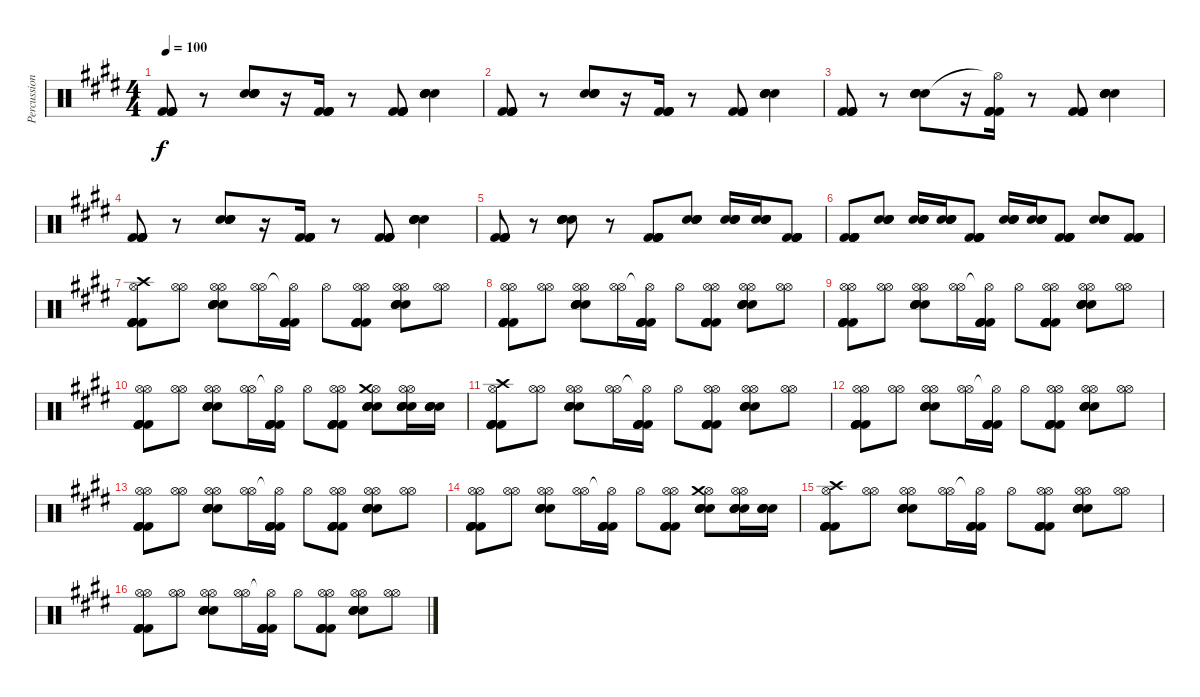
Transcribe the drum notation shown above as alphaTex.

\track ("Percussion" "Percussion") {instrument percussion}
\staff {score}
\articulation defaults
\ts (4 4)
\tempo 100
\clef neutral
\ks e
("Kick (hit) 2" "Kick (hit) 2" "Kick (hit) 2" "Kick (hit) 2").8{dy f} r.8 ("Electric Snare (hit)" "Electric Snare (hit)" "Electric Snare (hit)" "Electric Snare (hit)").8 r.16 ("Kick (hit) 2" "Kick (hit) 2" "Kick (hit) 2" "Kick (hit) 2").16 r.8 ("Kick (hit) 2" "Kick (hit) 2" "Kick (hit) 2" "Kick (hit) 2").8 ("Electric Snare (hit)" "Electric Snare (hit)" "Electric Snare (hit)" "Electric Snare (hit)").4 |
("Kick (hit) 2" "Kick (hit) 2" "Kick (hit) 2" "Kick (hit) 2").8 r.8 ("Electric Snare (hit)" "Electric Snare (hit)" "Electric Snare (hit)" "Electric Snare (hit)").8 r.16 ("Kick (hit) 2" "Kick (hit) 2" "Kick (hit) 2" "Kick (hit) 2").16 r.8 ("Kick (hit) 2" "Kick (hit) 2" "Kick (hit) 2" "Kick (hit) 2").8 ("Electric Snare (hit)" "Electric Snare (hit)" "Electric Snare (hit)" "Electric Snare (hit)").4 |
("Kick (hit) 2" "Kick (hit) 2" "Kick (hit) 2" "Kick (hit) 2").8 r.8 ("Electric Snare (hit)" "Electric Snare (hit)" "Electric Snare (hit)" "Electric Snare (hit)").8 r.16 ("Hi-Hat (open)"{t} "Kick (hit) 2" "Kick (hit) 2" "Kick (hit) 2" "Kick (hit) 2").16 r.8 ("Kick (hit) 2" "Kick (hit) 2" "Kick (hit) 2" "Kick (hit) 2").8 ("Electric Snare (hit)" "Electric Snare (hit)" "Electric Snare (hit)" "Electric Snare (hit)").4 |
("Kick (hit) 2" "Kick (hit) 2" "Kick (hit) 2" "Kick (hit) 2").8 r.8 ("Electric Snare (hit)" "Electric Snare (hit)" "Electric Snare (hit)" "Electric Snare (hit)").8 r.16 ("Kick (hit) 2" "Kick (hit) 2" "Kick (hit) 2" "Kick (hit) 2").16 r.8 ("Kick (hit) 2" "Kick (hit) 2" "Kick (hit) 2" "Kick (hit) 2").8 ("Electric Snare (hit)" "Electric Snare (hit)" "Electric Snare (hit)" "Electric Snare (hit)").4 |
("Kick (hit) 2" "Kick (hit) 2" "Kick (hit) 2" "Kick (hit) 2").8 r.8 ("Electric Snare (hit)" "Electric Snare (hit)" "Electric Snare (hit)" "Electric Snare (hit)").8 r.8 ("Kick (hit) 2" "Kick (hit) 2" "Kick (hit) 2" "Kick (hit) 2").8 ("Electric Snare (hit)" "Electric Snare (hit)" "Electric Snare (hit)" "Electric Snare (hit)").8 ("Electric Snare (hit)" "Electric Snare (hit)" "Electric Snare (hit)" "Electric Snare (hit)").16 ("Electric Snare (hit)" "Electric Snare (hit)" "Electric Snare (hit)" "Electric Snare (hit)").16 ("Kick (hit) 2" "Kick (hit) 2" "Kick (hit) 2" "Kick (hit) 2").8 |
("Kick (hit) 2" "Kick (hit) 2" "Kick (hit) 2" "Kick (hit) 2").8 ("Electric Snare (hit)" "Electric Snare (hit)" "Electric Snare (hit)" "Electric Snare (hit)").8 ("Electric Snare (hit)" "Electric Snare (hit)" "Electric Snare (hit)" "Electric Snare (hit)").16 ("Electric Snare (hit)" "Electric Snare (hit)" "Electric Snare (hit)" "Electric Snare (hit)").16 ("Kick (hit) 2" "Kick (hit) 2" "Kick (hit) 2" "Kick (hit) 2").8 ("Electric Snare (hit)" "Electric Snare (hit)" "Electric Snare (hit)" "Electric Snare (hit)").16 ("Electric Snare (hit)" "Electric Snare (hit)" "Electric Snare (hit)" "Electric Snare (hit)").16 ("Kick (hit) 2" "Kick (hit) 2" "Kick (hit) 2" "Kick (hit) 2").8 ("Electric Snare (hit)" "Electric Snare (hit)" "Electric Snare (hit)" "Electric Snare (hit)").8 ("Kick (hit) 2" "Kick (hit) 2" "Kick (hit) 2" "Kick (hit) 2").8 |
("Hi-Hat (open)" "Kick (hit) 2" "Kick (hit) 2" "Kick (hit) 2" "Kick (hit) 2" "Crash high (hit)").8 ("Hi-Hat (open)" "Hi-Hat (open)").8 ("Hi-Hat (open)" "Electric Snare (hit)" "Electric Snare (hit)" "Electric Snare (hit)" "Electric Snare (hit)" "Hi-Hat (open)").8 ("Hi-Hat (open)" "Hi-Hat (open)").16 ("Hi-Hat (open)"{t} "Kick (hit) 2" "Kick (hit) 2" "Kick (hit) 2" "Kick (hit) 2").16 "Hi-Hat (open)".8 ("Hi-Hat (open)" "Kick (hit) 2" "Kick (hit) 2" "Kick (hit) 2" "Kick (hit) 2" "Hi-Hat (open)").8 ("Hi-Hat (open)" "Electric Snare (hit)" "Electric Snare (hit)" "Electric Snare (hit)" "Electric Snare (hit)" "Hi-Hat (open)").8 ("Hi-Hat (open)" "Hi-Hat (open)").8 |
("Hi-Hat (open)" "Kick (hit) 2" "Kick (hit) 2" "Kick (hit) 2" "Kick (hit) 2" "Hi-Hat (open)").8 ("Hi-Hat (open)" "Hi-Hat (open)").8 ("Hi-Hat (open)" "Electric Snare (hit)" "Electric Snare (hit)" "Electric Snare (hit)" "Electric Snare (hit)" "Hi-Hat (open)").8 ("Hi-Hat (open)" "Hi-Hat (open)").16 ("Hi-Hat (open)"{t} "Kick (hit) 2" "Kick (hit) 2" "Kick (hit) 2" "Kick (hit) 2").16 "Hi-Hat (open)".8 ("Hi-Hat (open)" "Kick (hit) 2" "Kick (hit) 2" "Kick (hit) 2" "Kick (hit) 2" "Hi-Hat (open)").8 ("Hi-Hat (open)" "Electric Snare (hit)" "Electric Snare (hit)" "Electric Snare (hit)" "Electric Snare (hit)" "Hi-Hat (open)").8 ("Hi-Hat (open)" "Hi-Hat (open)").8 |
("Hi-Hat (open)" "Kick (hit) 2" "Kick (hit) 2" "Kick (hit) 2" "Kick (hit) 2" "Hi-Hat (open)").8 ("Hi-Hat (open)" "Hi-Hat (open)").8 ("Hi-Hat (open)" "Electric Snare (hit)" "Electric Snare (hit)" "Electric Snare (hit)" "Electric Snare (hit)" "Hi-Hat (open)").8 ("Hi-Hat (open)" "Hi-Hat (open)").16 ("Hi-Hat (open)"{t} "Kick (hit) 2" "Kick (hit) 2" "Kick (hit) 2" "Kick (hit) 2").16 "Hi-Hat (open)".8 ("Hi-Hat (open)" "Kick (hit) 2" "Kick (hit) 2" "Kick (hit) 2" "Kick (hit) 2" "Hi-Hat (open)").8 ("Hi-Hat (open)" "Electric Snare (hit)" "Electric Snare (hit)" "Electric Snare (hit)" "Electric Snare (hit)" "Hi-Hat (open)").8 ("Hi-Hat (open)" "Hi-Hat (open)").8 |
("Hi-Hat (open)" "Kick (hit) 2" "Kick (hit) 2" "Kick (hit) 2" "Kick (hit) 2" "Hi-Hat (open)").8 ("Hi-Hat (open)" "Hi-Hat (open)").8 ("Hi-Hat (open)" "Electric Snare (hit)" "Electric Snare (hit)" "Electric Snare (hit)" "Electric Snare (hit)" "Hi-Hat (open)").8 ("Hi-Hat (open)" "Hi-Hat (open)").16 ("Hi-Hat (open)"{t} "Kick (hit) 2" "Kick (hit) 2" "Kick (hit) 2" "Kick (hit) 2").16 "Hi-Hat (open)".8 ("Hi-Hat (open)" "Kick (hit) 2" "Kick (hit) 2" "Kick (hit) 2" "Kick (hit) 2" "Hi-Hat (open)").8 ("Hi-Hat (open)" "Electric Snare (hit)" "Electric Snare (hit)" "Electric Snare (hit)" "Electric Snare (hit)" "Crash medium (hit)").8 ("Hi-Hat (open)" "Electric Snare (hit)" "Electric Snare (hit)" "Electric Snare (hit)" "Electric Snare (hit)" "Hi-Hat (open)").16 ("Electric Snare (hit)" "Electric Snare (hit)" "Electric Snare (hit)" "Electric Snare (hit)").16 |
("Hi-Hat (open)" "Kick (hit) 2" "Kick (hit) 2" "Kick (hit) 2" "Kick (hit) 2" "Crash high (hit)").8 ("Hi-Hat (open)" "Hi-Hat (open)").8 ("Hi-Hat (open)" "Electric Snare (hit)" "Electric Snare (hit)" "Electric Snare (hit)" "Electric Snare (hit)" "Hi-Hat (open)").8 ("Hi-Hat (open)" "Hi-Hat (open)").16 ("Hi-Hat (open)"{t} "Kick (hit) 2" "Kick (hit) 2" "Kick (hit) 2" "Kick (hit) 2").16 "Hi-Hat (open)".8 ("Hi-Hat (open)" "Kick (hit) 2" "Kick (hit) 2" "Kick (hit) 2" "Kick (hit) 2" "Hi-Hat (open)").8 ("Hi-Hat (open)" "Electric Snare (hit)" "Electric Snare (hit)" "Electric Snare (hit)" "Electric Snare (hit)" "Hi-Hat (open)").8 ("Hi-Hat (open)" "Hi-Hat (open)").8 |
("Hi-Hat (open)" "Kick (hit) 2" "Kick (hit) 2" "Kick (hit) 2" "Kick (hit) 2" "Hi-Hat (open)").8 ("Hi-Hat (open)" "Hi-Hat (open)").8 ("Hi-Hat (open)" "Electric Snare (hit)" "Electric Snare (hit)" "Electric Snare (hit)" "Electric Snare (hit)" "Hi-Hat (open)").8 ("Hi-Hat (open)" "Hi-Hat (open)").16 ("Hi-Hat (open)"{t} "Kick (hit) 2" "Kick (hit) 2" "Kick (hit) 2" "Kick (hit) 2").16 "Hi-Hat (open)".8 ("Hi-Hat (open)" "Kick (hit) 2" "Kick (hit) 2" "Kick (hit) 2" "Kick (hit) 2" "Hi-Hat (open)").8 ("Hi-Hat (open)" "Electric Snare (hit)" "Electric Snare (hit)" "Electric Snare (hit)" "Electric Snare (hit)" "Hi-Hat (open)").8 ("Hi-Hat (open)" "Hi-Hat (open)").8 |
("Hi-Hat (open)" "Kick (hit) 2" "Kick (hit) 2" "Kick (hit) 2" "Kick (hit) 2" "Hi-Hat (open)").8 ("Hi-Hat (open)" "Hi-Hat (open)").8 ("Hi-Hat (open)" "Electric Snare (hit)" "Electric Snare (hit)" "Electric Snare (hit)" "Electric Snare (hit)" "Hi-Hat (open)").8 ("Hi-Hat (open)" "Hi-Hat (open)").16 ("Hi-Hat (open)"{t} "Kick (hit) 2" "Kick (hit) 2" "Kick (hit) 2" "Kick (hit) 2").16 "Hi-Hat (open)".8 ("Hi-Hat (open)" "Kick (hit) 2" "Kick (hit) 2" "Kick (hit) 2" "Kick (hit) 2" "Hi-Hat (open)").8 ("Hi-Hat (open)" "Electric Snare (hit)" "Electric Snare (hit)" "Electric Snare (hit)" "Electric Snare (hit)" "Hi-Hat (open)").8 ("Hi-Hat (open)" "Hi-Hat (open)").8 |
("Hi-Hat (open)" "Kick (hit) 2" "Kick (hit) 2" "Kick (hit) 2" "Kick (hit) 2" "Hi-Hat (open)").8 ("Hi-Hat (open)" "Hi-Hat (open)").8 ("Hi-Hat (open)" "Electric Snare (hit)" "Electric Snare (hit)" "Electric Snare (hit)" "Electric Snare (hit)" "Hi-Hat (open)").8 ("Hi-Hat (open)" "Hi-Hat (open)").16 ("Hi-Hat (open)"{t} "Kick (hit) 2" "Kick (hit) 2" "Kick (hit) 2" "Kick (hit) 2").16 "Hi-Hat (open)".8 ("Hi-Hat (open)" "Kick (hit) 2" "Kick (hit) 2" "Kick (hit) 2" "Kick (hit) 2" "Hi-Hat (open)").8 ("Hi-Hat (open)" "Electric Snare (hit)" "Electric Snare (hit)" "Electric Snare (hit)" "Electric Snare (hit)" "Crash medium (hit)").8 ("Hi-Hat (open)" "Electric Snare (hit)" "Electric Snare (hit)" "Electric Snare (hit)" "Electric Snare (hit)" "Hi-Hat (open)").16 ("Electric Snare (hit)" "Electric Snare (hit)" "Electric Snare (hit)" "Electric Snare (hit)").16 |
("Hi-Hat (open)" "Kick (hit) 2" "Kick (hit) 2" "Kick (hit) 2" "Kick (hit) 2" "Crash high (hit)").8 ("Hi-Hat (open)" "Hi-Hat (open)").8 ("Hi-Hat (open)" "Electric Snare (hit)" "Electric Snare (hit)" "Electric Snare (hit)" "Electric Snare (hit)" "Hi-Hat (open)").8 ("Hi-Hat (open)" "Hi-Hat (open)").16 ("Hi-Hat (open)"{t} "Kick (hit) 2" "Kick (hit) 2" "Kick (hit) 2" "Kick (hit) 2").16 "Hi-Hat (open)".8 ("Hi-Hat (open)" "Kick (hit) 2" "Kick (hit) 2" "Kick (hit) 2" "Kick (hit) 2" "Hi-Hat (open)").8 ("Hi-Hat (open)" "Electric Snare (hit)" "Electric Snare (hit)" "Electric Snare (hit)" "Electric Snare (hit)" "Hi-Hat (open)").8 ("Hi-Hat (open)" "Hi-Hat (open)").8 |
("Hi-Hat (open)" "Kick (hit) 2" "Kick (hit) 2" "Kick (hit) 2" "Kick (hit) 2" "Hi-Hat (open)").8 ("Hi-Hat (open)" "Hi-Hat (open)").8 ("Hi-Hat (open)" "Electric Snare (hit)" "Electric Snare (hit)" "Electric Snare (hit)" "Electric Snare (hit)" "Hi-Hat (open)").8 ("Hi-Hat (open)" "Hi-Hat (open)").16 ("Hi-Hat (open)"{t} "Kick (hit) 2" "Kick (hit) 2" "Kick (hit) 2" "Kick (hit) 2").16 "Hi-Hat (open)".8 ("Hi-Hat (open)" "Kick (hit) 2" "Kick (hit) 2" "Kick (hit) 2" "Kick (hit) 2" "Hi-Hat (open)").8 ("Hi-Hat (open)" "Electric Snare (hit)" "Electric Snare (hit)" "Electric Snare (hit)" "Electric Snare (hit)" "Hi-Hat (open)").8 ("Hi-Hat (open)" "Hi-Hat (open)").8
